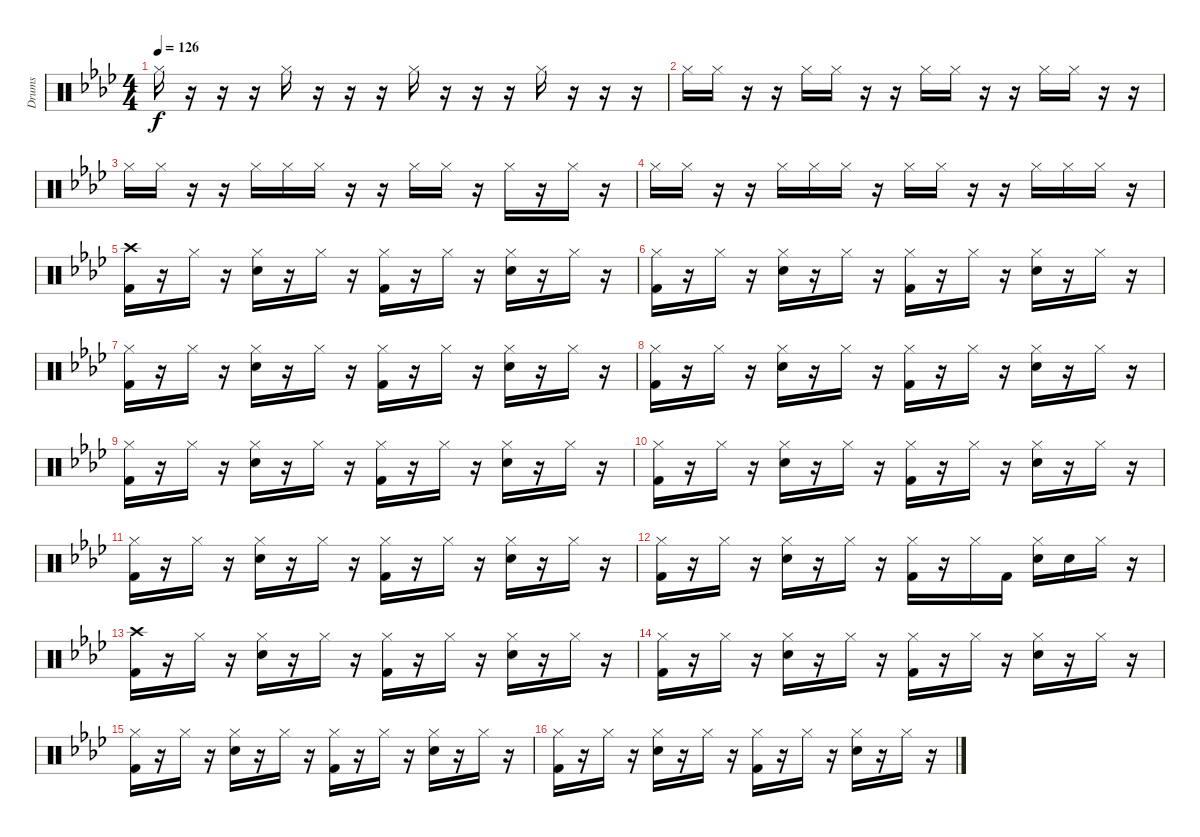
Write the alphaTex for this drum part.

\track ("Drums" "Drums") {instrument percussion}
\staff {score}
\articulation defaults
\ts (4 4)
\tempo 126
\clef neutral
\ks ab "Hi-Hat (closed)".16{dy f}
r.16 r.16 r.16 "Hi-Hat (closed)".16 r.16 r.16 r.16 "Hi-Hat (closed)".16 r.16 r.16 r.16 "Hi-Hat (closed)".16 r.16 r.16 r.16 |
"Hi-Hat (closed)".16 "Hi-Hat (closed)".16 r.16 r.16 "Hi-Hat (closed)".16 "Hi-Hat (closed)".16 r.16 r.16 "Hi-Hat (closed)".16 "Hi-Hat (closed)".16 r.16 r.16 "Hi-Hat (closed)".16 "Hi-Hat (closed)".16 r.16 r.16 |
"Hi-Hat (closed)".16 "Hi-Hat (closed)".16 r.16 r.16 "Hi-Hat (closed)".16 "Hi-Hat (closed)".16 "Hi-Hat (closed)".16 r.16 r.16 "Hi-Hat (closed)".16 "Hi-Hat (closed)".16 r.16 "Hi-Hat (closed)".16 r.16 "Hi-Hat (closed)".16 r.16 |
"Hi-Hat (closed)".16 "Hi-Hat (closed)".16 r.16 r.16 "Hi-Hat (closed)".16 "Hi-Hat (closed)".16 "Hi-Hat (closed)".16 r.16 "Hi-Hat (closed)".16 "Hi-Hat (closed)".16 r.16 r.16 "Hi-Hat (closed)".16 "Hi-Hat (closed)".16 "Hi-Hat (closed)".16 r.16 |
("Crash high (hit)" "Kick (hit) 2").16 r.16 "Hi-Hat (closed)".16 r.16 ("Hi-Hat (closed)" "Snare (hit) 2").16 r.16 "Hi-Hat (closed)".16 r.16 ("Hi-Hat (closed)" "Kick (hit) 2").16 r.16 "Hi-Hat (closed)".16 r.16 ("Hi-Hat (closed)" "Snare (hit) 2").16 r.16 "Hi-Hat (closed)".16 r.16 |
("Hi-Hat (closed)" "Kick (hit) 2").16 r.16 "Hi-Hat (closed)".16 r.16 ("Hi-Hat (closed)" "Snare (hit) 2").16 r.16 "Hi-Hat (closed)".16 r.16 ("Hi-Hat (closed)" "Kick (hit) 2").16 r.16 "Hi-Hat (closed)".16 r.16 ("Hi-Hat (closed)" "Snare (hit) 2").16 r.16 "Hi-Hat (closed)".16 r.16 |
("Hi-Hat (closed)" "Kick (hit) 2").16 r.16 "Hi-Hat (closed)".16 r.16 ("Hi-Hat (closed)" "Snare (hit) 2").16 r.16 "Hi-Hat (closed)".16 r.16 ("Hi-Hat (closed)" "Kick (hit) 2").16 r.16 "Hi-Hat (closed)".16 r.16 ("Hi-Hat (closed)" "Snare (hit) 2").16 r.16 "Hi-Hat (closed)".16 r.16 |
("Hi-Hat (closed)" "Kick (hit) 2").16 r.16 "Hi-Hat (closed)".16 r.16 ("Hi-Hat (closed)" "Snare (hit) 2").16 r.16 "Hi-Hat (closed)".16 r.16 ("Hi-Hat (closed)" "Kick (hit) 2").16 r.16 "Hi-Hat (closed)".16 r.16 ("Hi-Hat (closed)" "Snare (hit) 2").16 r.16 "Hi-Hat (closed)".16 r.16 |
("Hi-Hat (closed)" "Kick (hit) 2").16 r.16 "Hi-Hat (closed)".16 r.16 ("Hi-Hat (closed)" "Snare (hit) 2").16 r.16 "Hi-Hat (closed)".16 r.16 ("Hi-Hat (closed)" "Kick (hit) 2").16 r.16 "Hi-Hat (closed)".16 r.16 ("Hi-Hat (closed)" "Snare (hit) 2").16 r.16 "Hi-Hat (closed)".16 r.16 |
("Hi-Hat (closed)" "Kick (hit) 2").16 r.16 "Hi-Hat (closed)".16 r.16 ("Hi-Hat (closed)" "Snare (hit) 2").16 r.16 "Hi-Hat (closed)".16 r.16 ("Hi-Hat (closed)" "Kick (hit) 2").16 r.16 "Hi-Hat (closed)".16 r.16 ("Hi-Hat (closed)" "Snare (hit) 2").16 r.16 "Hi-Hat (closed)".16 r.16 |
("Hi-Hat (closed)" "Kick (hit) 2").16 r.16 "Hi-Hat (closed)".16 r.16 ("Hi-Hat (closed)" "Snare (hit) 2").16 r.16 "Hi-Hat (closed)".16 r.16 ("Hi-Hat (closed)" "Kick (hit) 2").16 r.16 "Hi-Hat (closed)".16 r.16 ("Hi-Hat (closed)" "Snare (hit) 2").16 r.16 "Hi-Hat (closed)".16 r.16 |
("Hi-Hat (closed)" "Kick (hit) 2").16 r.16 "Hi-Hat (closed)".16 r.16 ("Hi-Hat (closed)" "Snare (hit) 2").16 r.16 "Hi-Hat (closed)".16 r.16 ("Hi-Hat (closed)" "Kick (hit) 2").16 r.16 "Hi-Hat (closed)".16 "Kick (hit) 2".16 ("Hi-Hat (closed)" "Snare (hit) 2").16 "Snare (hit) 2".16 "Hi-Hat (closed)".16 r.16 |
("Crash high (hit)" "Kick (hit) 2").16 r.16 "Hi-Hat (closed)".16 r.16 ("Hi-Hat (closed)" "Snare (hit) 2").16 r.16 "Hi-Hat (closed)".16 r.16 ("Hi-Hat (closed)" "Kick (hit) 2").16 r.16 "Hi-Hat (closed)".16 r.16 ("Hi-Hat (closed)" "Snare (hit) 2").16 r.16 "Hi-Hat (closed)".16 r.16 |
("Hi-Hat (closed)" "Kick (hit) 2").16 r.16 "Hi-Hat (closed)".16 r.16 ("Hi-Hat (closed)" "Snare (hit) 2").16 r.16 "Hi-Hat (closed)".16 r.16 ("Hi-Hat (closed)" "Kick (hit) 2").16 r.16 "Hi-Hat (closed)".16 r.16 ("Hi-Hat (closed)" "Snare (hit) 2").16 r.16 "Hi-Hat (closed)".16 r.16 |
("Hi-Hat (closed)" "Kick (hit) 2").16 r.16 "Hi-Hat (closed)".16 r.16 ("Hi-Hat (closed)" "Snare (hit) 2").16 r.16 "Hi-Hat (closed)".16 r.16 ("Hi-Hat (closed)" "Kick (hit) 2").16 r.16 "Hi-Hat (closed)".16 r.16 ("Hi-Hat (closed)" "Snare (hit) 2").16 r.16 "Hi-Hat (closed)".16 r.16 |
("Hi-Hat (closed)" "Kick (hit) 2").16 r.16 "Hi-Hat (closed)".16 r.16 ("Hi-Hat (closed)" "Snare (hit) 2").16 r.16 "Hi-Hat (closed)".16 r.16 ("Hi-Hat (closed)" "Kick (hit) 2").16 r.16 "Hi-Hat (closed)".16 r.16 ("Hi-Hat (closed)" "Snare (hit) 2").16 r.16 "Hi-Hat (closed)".16 r.16
